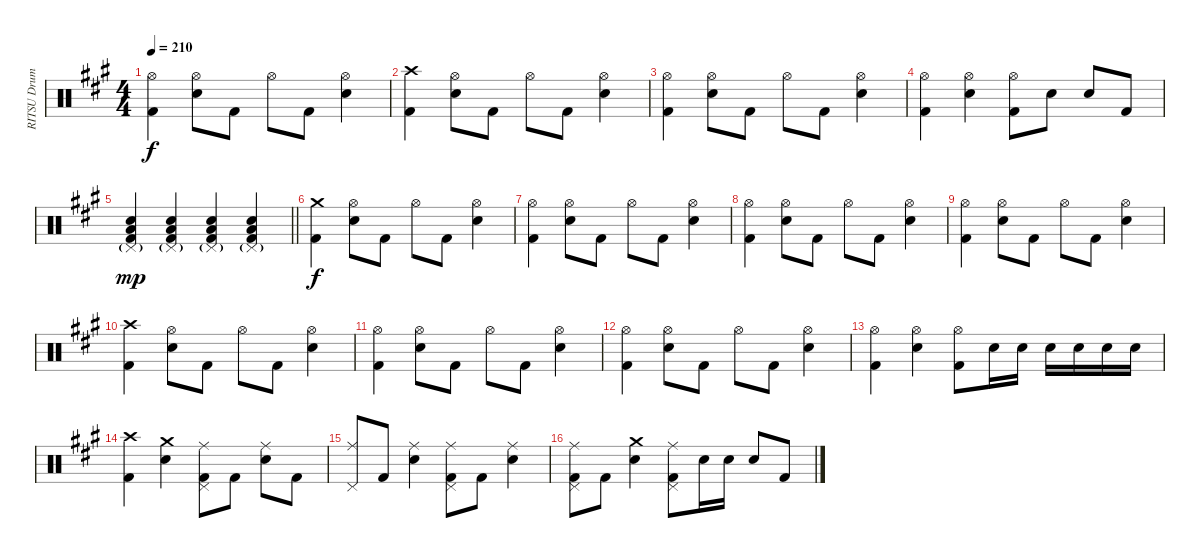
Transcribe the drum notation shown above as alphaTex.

\track ("RITSU Drums" "RITSU Drum") {instrument percussion}
\staff {score}
\articulation defaults
\ts (4 4)
\tempo 210
\clef neutral
\ks a
("Hi-Hat (open)" "Kick (hit) 2").4{dy f} ("Hi-Hat (open)" "Electric Snare (hit)").8 "Kick (hit) 2".8 "Hi-Hat (open)".8 "Kick (hit) 2".8 ("Hi-Hat (open)" "Electric Snare (hit)").4 |
("Crash high (hit)" "Kick (hit) 2").4 ("Hi-Hat (open)" "Electric Snare (hit)").8 "Kick (hit) 2".8 "Hi-Hat (open)".8 "Kick (hit) 2".8 ("Hi-Hat (open)" "Electric Snare (hit)").4 |
("Hi-Hat (open)" "Kick (hit) 2").4 ("Hi-Hat (open)" "Electric Snare (hit)").8 "Kick (hit) 2".8 "Hi-Hat (open)".8 "Kick (hit) 2".8 ("Hi-Hat (open)" "Electric Snare (hit)").4 |
("Hi-Hat (open)" "Kick (hit) 2").4 ("Hi-Hat (open)" "Electric Snare (hit)").4 ("Hi-Hat (open)" "Kick (hit) 2").8 "Electric Snare (hit)".8 "Electric Snare (hit)".8 "Kick (hit) 2".8 |
\barLineRight lightlight
("Pedal Hi-Hat (hit)"{g} "Electric Snare (hit)" "Low Floor Tom (hit)" "Kick (hit) 2").4{dy mp} ("Pedal Hi-Hat (hit)"{g} "Electric Snare (hit)" "Low Floor Tom (hit)" "Kick (hit) 2").4 ("Pedal Hi-Hat (hit)"{g} "Electric Snare (hit)" "Low Floor Tom (hit)" "Kick (hit) 2").4 ("Pedal Hi-Hat (hit)"{g} "Electric Snare (hit)" "Low Floor Tom (hit)" "Kick (hit) 2").4 |
("Crash medium (hit)" "Kick (hit) 2").4{dy f} ("Hi-Hat (open)" "Electric Snare (hit)").8 "Kick (hit) 2".8 "Hi-Hat (open)".8 "Kick (hit) 2".8 ("Hi-Hat (open)" "Electric Snare (hit)").4 |
("Hi-Hat (open)" "Kick (hit) 2").4 ("Hi-Hat (open)" "Electric Snare (hit)").8 "Kick (hit) 2".8 "Hi-Hat (open)".8 "Kick (hit) 2".8 ("Hi-Hat (open)" "Electric Snare (hit)").4 |
("Hi-Hat (open)" "Kick (hit) 2").4 ("Hi-Hat (open)" "Electric Snare (hit)").8 "Kick (hit) 2".8 "Hi-Hat (open)".8 "Kick (hit) 2".8 ("Hi-Hat (open)" "Electric Snare (hit)").4 |
("Hi-Hat (open)" "Kick (hit) 2").4 ("Hi-Hat (open)" "Electric Snare (hit)").8 "Kick (hit) 2".8 "Hi-Hat (open)".8 "Kick (hit) 2".8 ("Hi-Hat (open)" "Electric Snare (hit)").4 |
("Crash high (hit)" "Kick (hit) 2").4 ("Hi-Hat (open)" "Electric Snare (hit)").8 "Kick (hit) 2".8 "Hi-Hat (open)".8 "Kick (hit) 2".8 ("Hi-Hat (open)" "Electric Snare (hit)").4 |
("Hi-Hat (open)" "Kick (hit) 2").4 ("Hi-Hat (open)" "Electric Snare (hit)").8 "Kick (hit) 2".8 "Hi-Hat (open)".8 "Kick (hit) 2".8 ("Hi-Hat (open)" "Electric Snare (hit)").4 |
("Hi-Hat (open)" "Kick (hit) 2").4 ("Hi-Hat (open)" "Electric Snare (hit)").8 "Kick (hit) 2".8 "Hi-Hat (open)".8 "Kick (hit) 2".8 ("Hi-Hat (open)" "Electric Snare (hit)").4 |
("Hi-Hat (open)" "Kick (hit) 2").4 ("Hi-Hat (open)" "Electric Snare (hit)").4 ("Hi-Hat (open)" "Kick (hit) 2").8 "Electric Snare (hit)".16 "Electric Snare (hit)".16 "Electric Snare (hit)".16 "Electric Snare (hit)".16 "Electric Snare (hit)".16 "Electric Snare (hit)".16 |
("Crash high (hit)" "Kick (hit) 2").4 ("Crash medium (hit)" "Electric Snare (hit)").4 ("Ride (middle)" "Pedal Hi-Hat (hit)" "Kick (hit) 2").8 "Kick (hit) 2".8 ("Ride (middle)" "Electric Snare (hit)").8 "Kick (hit) 2".8 |
("Ride (middle)" "Pedal Hi-Hat (hit)").8 "Kick (hit) 2".8 ("Ride (middle)" "Electric Snare (hit)").4 ("Ride (middle)" "Pedal Hi-Hat (hit)" "Kick (hit) 2").8 "Kick (hit) 2".8 ("Ride (middle)" "Electric Snare (hit)").4 |
("Ride (middle)" "Pedal Hi-Hat (hit)" "Kick (hit) 2").8 "Kick (hit) 2".8 ("Crash medium (hit)" "Electric Snare (hit)").4 ("Ride (middle)" "Pedal Hi-Hat (hit)" "Kick (hit) 2").8 "Electric Snare (hit)".16 "Electric Snare (hit)".16 "Electric Snare (hit)".8 "Kick (hit) 2".8
